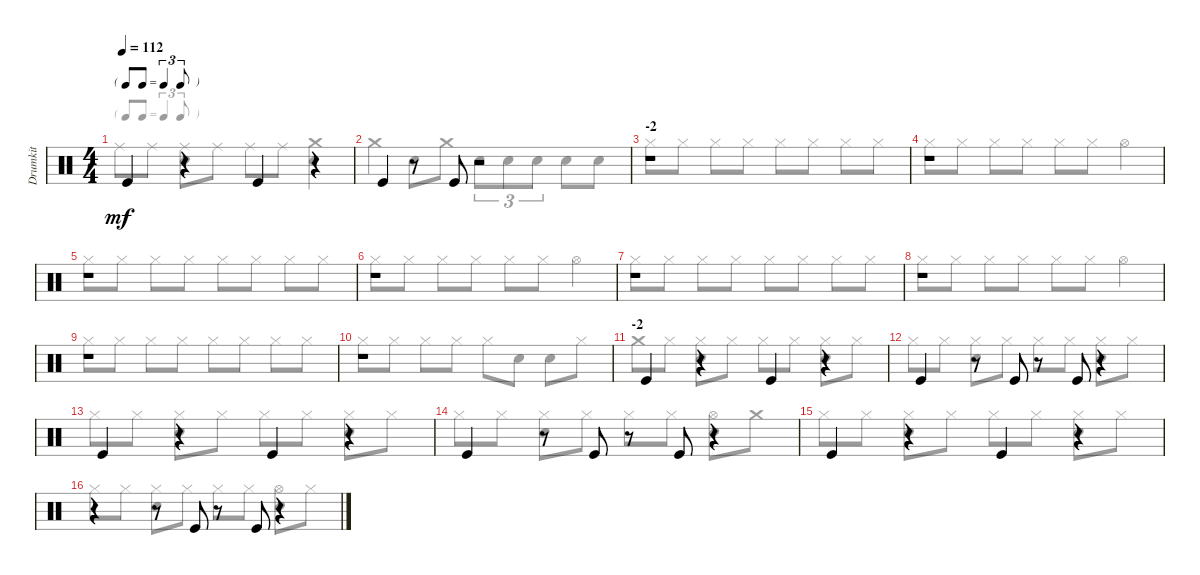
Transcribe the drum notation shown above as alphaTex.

\track ("Drumkit" "Drumkit") {instrument percussion}
\staff {score}
\articulation defaults
\voice
\ts (4 4)
\tf triplet8th
\tempo 112
\clef neutral
\ks c "Kick (hit)".4{dy mf}
r.4 "Kick (hit)".4 r.4 |
"Kick (hit)".4 r.8 "Kick (hit)".8 r.2 |
\section ("" "-2")
r.1 |
r.1 |
r.1 |
r.1 |
r.1 |
r.1 |
r.1 |
r.1 |
\section ("" "-2")
"Kick (hit)".4 r.4 "Kick (hit)".4 r.4 |
"Kick (hit)".4 r.8 "Kick (hit)".8 r.8 "Kick (hit)".8 r.4 |
"Kick (hit)".4 r.4 "Kick (hit)".4 r.4 |
"Kick (hit)".4 r.8 "Kick (hit)".8 r.8 "Kick (hit)".8 r.4 |
"Kick (hit)".4 r.4 "Kick (hit)".4 r.4 |
r.4 r.8 "Kick (hit)".8 r.8 "Kick (hit)".8 r.4
\voice
\clef neutral
\ottava regular
\simile none
\ks c "Ride (middle)".8{dy mf} "Ride (middle)".8
("Ride (middle)" "Snare (hit) 2").8 "Ride (middle)".8 "Ride (middle)".8 "Ride (middle)".8 ("Crash medium (hit)" "Snare (hit) 2").4 |
"Crash medium (hit)".4 "Snare (hit) 2".8 "Crash medium (hit)".8 "Snare (hit) 2".8{tu (3 2)} "Snare (hit) 2".8{tu (3 2)} "Snare (hit) 2".8{tu (3 2)} "Snare (hit) 2".8 "Snare (hit) 2".8 |
"Hi-Hat (closed)".8 "Hi-Hat (closed)".8 "Hi-Hat (closed)".8 "Hi-Hat (closed)".8 "Hi-Hat (closed)".8 "Hi-Hat (closed)".8 "Hi-Hat (closed)".8 "Hi-Hat (closed)".8 |
"Hi-Hat (closed)".8 "Hi-Hat (closed)".8 "Hi-Hat (closed)".8 "Hi-Hat (closed)".8 "Hi-Hat (closed)".8 "Hi-Hat (closed)".8 "Hi-Hat (open)".4 |
"Hi-Hat (closed)".8 "Hi-Hat (closed)".8 "Hi-Hat (closed)".8 "Hi-Hat (closed)".8 "Hi-Hat (closed)".8 "Hi-Hat (closed)".8 "Hi-Hat (closed)".8 "Hi-Hat (closed)".8 |
"Hi-Hat (closed)".8 "Hi-Hat (closed)".8 "Hi-Hat (closed)".8 "Hi-Hat (closed)".8 "Hi-Hat (closed)".8 "Hi-Hat (closed)".8 "Hi-Hat (open)".4 |
"Hi-Hat (closed)".8 "Hi-Hat (closed)".8 "Hi-Hat (closed)".8 "Hi-Hat (closed)".8 "Hi-Hat (closed)".8 "Hi-Hat (closed)".8 "Hi-Hat (closed)".8 "Hi-Hat (closed)".8 |
"Hi-Hat (closed)".8 "Hi-Hat (closed)".8 "Hi-Hat (closed)".8 "Hi-Hat (closed)".8 "Hi-Hat (closed)".8 "Hi-Hat (closed)".8 "Hi-Hat (open)".4 |
"Hi-Hat (closed)".8 "Hi-Hat (closed)".8 "Hi-Hat (closed)".8 "Hi-Hat (closed)".8 "Hi-Hat (closed)".8 "Hi-Hat (closed)".8 "Hi-Hat (closed)".8 "Hi-Hat (closed)".8 |
"Hi-Hat (closed)".8 "Hi-Hat (closed)".8 "Hi-Hat (closed)".8 "Hi-Hat (closed)".8 "Hi-Hat (closed)".8 "Snare (hit) 2".8 "Snare (hit) 2".8 "Hi-Hat (closed)".8 |
"Crash medium (hit)".8 "Hi-Hat (closed)".8 ("Hi-Hat (closed)" "Snare (hit) 2").8 "Hi-Hat (closed)".8 "Hi-Hat (closed)".8 "Hi-Hat (closed)".8 ("Hi-Hat (closed)" "Snare (hit) 2").8 "Hi-Hat (closed)".8 |
"Hi-Hat (closed)".8 "Hi-Hat (closed)".8 ("Hi-Hat (closed)" "Snare (hit) 2").8 "Hi-Hat (closed)".8 "Hi-Hat (closed)".8 "Hi-Hat (closed)".8 ("Hi-Hat (closed)" "Snare (hit) 2").8 "Hi-Hat (closed)".8 |
"Hi-Hat (closed)".8 "Hi-Hat (closed)".8 ("Hi-Hat (closed)" "Snare (hit) 2").8 "Hi-Hat (closed)".8 "Hi-Hat (closed)".8 "Hi-Hat (closed)".8 ("Hi-Hat (closed)" "Snare (hit) 2").8 "Hi-Hat (closed)".8 |
"Hi-Hat (closed)".8 "Hi-Hat (closed)".8 ("Hi-Hat (closed)" "Snare (hit) 2").8 "Hi-Hat (closed)".8 "Hi-Hat (closed)".8 "Hi-Hat (closed)".8 ("Hi-Hat (open)" "Snare (hit) 2").8 "Crash medium (hit)".8 |
"Hi-Hat (closed)".8 "Hi-Hat (closed)".8 ("Hi-Hat (closed)" "Snare (hit) 2").8 "Hi-Hat (closed)".8 "Hi-Hat (closed)".8 "Hi-Hat (closed)".8 ("Hi-Hat (closed)" "Snare (hit) 2").8 "Hi-Hat (closed)".8 |
"Hi-Hat (closed)".8 "Hi-Hat (closed)".8 ("Hi-Hat (closed)" "Snare (hit) 2").8 "Hi-Hat (closed)".8 "Hi-Hat (closed)".8 "Hi-Hat (closed)".8 ("Hi-Hat (open)" "Snare (hit) 2").8 "Hi-Hat (closed)".8
